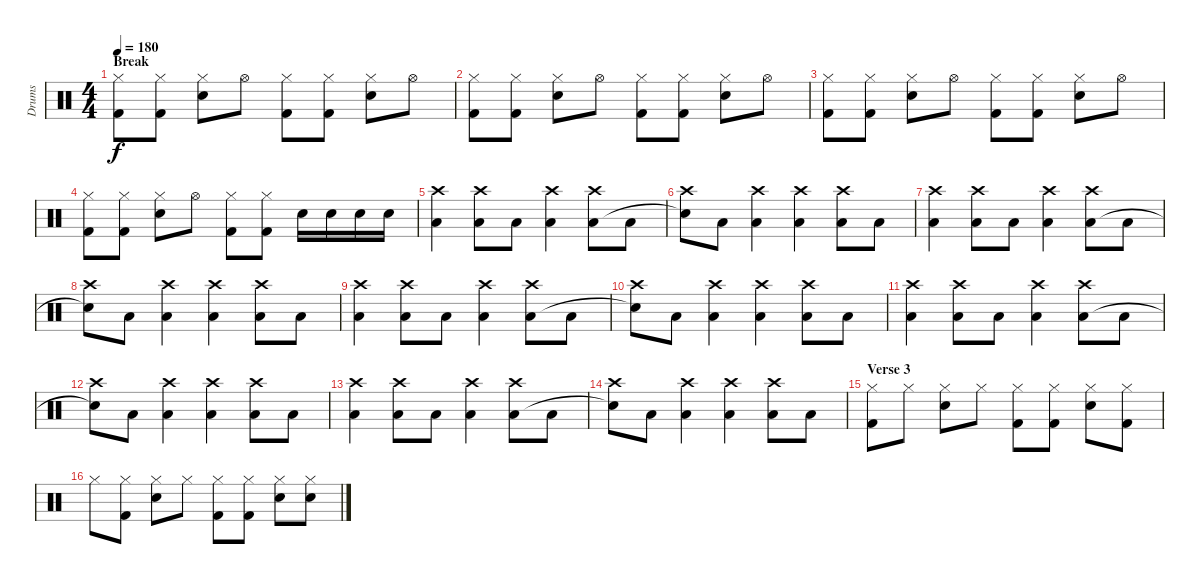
\track ("Drums" "Drums") {instrument percussion}
\staff {score}
\articulation defaults
\ts (4 4)
\section ("" "Break")
\tempo 180
\clef neutral
\ks c
("Hi-Hat (closed)" "Kick (hit) 2").8{dy f} ("Hi-Hat (closed)" "Kick (hit) 2").8 ("Hi-Hat (closed)" "Snare (hit) 2").8 "Hi-Hat (open)".8 ("Hi-Hat (closed)" "Kick (hit) 2").8 ("Hi-Hat (closed)" "Kick (hit) 2").8 ("Hi-Hat (closed)" "Snare (hit) 2").8 "Hi-Hat (open)".8 |
("Hi-Hat (closed)" "Kick (hit) 2").8 ("Hi-Hat (closed)" "Kick (hit) 2").8 ("Hi-Hat (closed)" "Snare (hit) 2").8 "Hi-Hat (open)".8 ("Hi-Hat (closed)" "Kick (hit) 2").8 ("Hi-Hat (closed)" "Kick (hit) 2").8 ("Hi-Hat (closed)" "Snare (hit) 2").8 "Hi-Hat (open)".8 |
("Hi-Hat (closed)" "Kick (hit) 2").8 ("Hi-Hat (closed)" "Kick (hit) 2").8 ("Hi-Hat (closed)" "Snare (hit) 2").8 "Hi-Hat (open)".8 ("Hi-Hat (closed)" "Kick (hit) 2").8 ("Hi-Hat (closed)" "Kick (hit) 2").8 ("Hi-Hat (closed)" "Snare (hit) 2").8 "Hi-Hat (open)".8 |
("Hi-Hat (closed)" "Kick (hit) 2").8 ("Hi-Hat (closed)" "Kick (hit) 2").8 ("Hi-Hat (closed)" "Snare (hit) 2").8 "Hi-Hat (open)".8 ("Hi-Hat (closed)" "Kick (hit) 2").8 ("Hi-Hat (closed)" "Kick (hit) 2").8 "Snare (hit) 2".16 "Snare (hit) 2".16 "Snare (hit) 2".16 "Snare (hit) 2".16 |
("Crash high (hit)" "Low Floor Tom (hit)").4 ("Crash high (hit)" "Low Floor Tom (hit)").8 "Low Floor Tom (hit)".8 ("Crash high (hit)" "Low Floor Tom (hit)").4 ("Crash high (hit)" "Low Floor Tom (hit)").8 "Low Floor Tom (hit)".8 |
("Crash high (hit)" "Snare (hit)"{t}).8 "Low Floor Tom (hit)".8 ("Crash high (hit)" "Low Floor Tom (hit)").4 ("Crash high (hit)" "Low Floor Tom (hit)").4 ("Crash high (hit)" "Low Floor Tom (hit)").8 "Low Floor Tom (hit)".8 |
("Crash high (hit)" "Low Floor Tom (hit)").4 ("Crash high (hit)" "Low Floor Tom (hit)").8 "Low Floor Tom (hit)".8 ("Crash high (hit)" "Low Floor Tom (hit)").4 ("Crash high (hit)" "Low Floor Tom (hit)").8 "Low Floor Tom (hit)".8 |
("Crash high (hit)" "Snare (hit)"{t}).8 "Low Floor Tom (hit)".8 ("Crash high (hit)" "Low Floor Tom (hit)").4 ("Crash high (hit)" "Low Floor Tom (hit)").4 ("Crash high (hit)" "Low Floor Tom (hit)").8 "Low Floor Tom (hit)".8 |
("Crash high (hit)" "Low Floor Tom (hit)").4 ("Crash high (hit)" "Low Floor Tom (hit)").8 "Low Floor Tom (hit)".8 ("Crash high (hit)" "Low Floor Tom (hit)").4 ("Crash high (hit)" "Low Floor Tom (hit)").8 "Low Floor Tom (hit)".8 |
("Crash high (hit)" "Snare (hit)"{t}).8 "Low Floor Tom (hit)".8 ("Crash high (hit)" "Low Floor Tom (hit)").4 ("Crash high (hit)" "Low Floor Tom (hit)").4 ("Crash high (hit)" "Low Floor Tom (hit)").8 "Low Floor Tom (hit)".8 |
("Crash high (hit)" "Low Floor Tom (hit)").4 ("Crash high (hit)" "Low Floor Tom (hit)").8 "Low Floor Tom (hit)".8 ("Crash high (hit)" "Low Floor Tom (hit)").4 ("Crash high (hit)" "Low Floor Tom (hit)").8 "Low Floor Tom (hit)".8 |
("Crash high (hit)" "Snare (hit)"{t}).8 "Low Floor Tom (hit)".8 ("Crash high (hit)" "Low Floor Tom (hit)").4 ("Crash high (hit)" "Low Floor Tom (hit)").4 ("Crash high (hit)" "Low Floor Tom (hit)").8 "Low Floor Tom (hit)".8 |
("Crash high (hit)" "Low Floor Tom (hit)").4 ("Crash high (hit)" "Low Floor Tom (hit)").8 "Low Floor Tom (hit)".8 ("Crash high (hit)" "Low Floor Tom (hit)").4 ("Crash high (hit)" "Low Floor Tom (hit)").8 "Low Floor Tom (hit)".8 |
("Crash high (hit)" "Snare (hit)"{t}).8 "Low Floor Tom (hit)".8 ("Crash high (hit)" "Low Floor Tom (hit)").4 ("Crash high (hit)" "Low Floor Tom (hit)").4 ("Crash high (hit)" "Low Floor Tom (hit)").8 "Low Floor Tom (hit)".8 |
\section ("" "Verse 3")
("Hi-Hat (closed)" "Kick (hit) 2").8 "Hi-Hat (closed)".8 ("Hi-Hat (closed)" "Snare (hit) 2").8 "Hi-Hat (closed)".8 ("Hi-Hat (closed)" "Kick (hit) 2").8 ("Hi-Hat (closed)" "Kick (hit) 2").8 ("Hi-Hat (closed)" "Snare (hit) 2").8 ("Hi-Hat (closed)" "Kick (hit) 2").8 |
"Hi-Hat (closed)".8 ("Hi-Hat (closed)" "Kick (hit) 2").8 ("Hi-Hat (closed)" "Snare (hit) 2").8 "Hi-Hat (closed)".8 ("Hi-Hat (closed)" "Kick (hit) 2").8 ("Hi-Hat (closed)" "Kick (hit) 2").8 ("Hi-Hat (closed)" "Snare (hit) 2").8 ("Hi-Hat (closed)" "Snare (hit) 2").8
